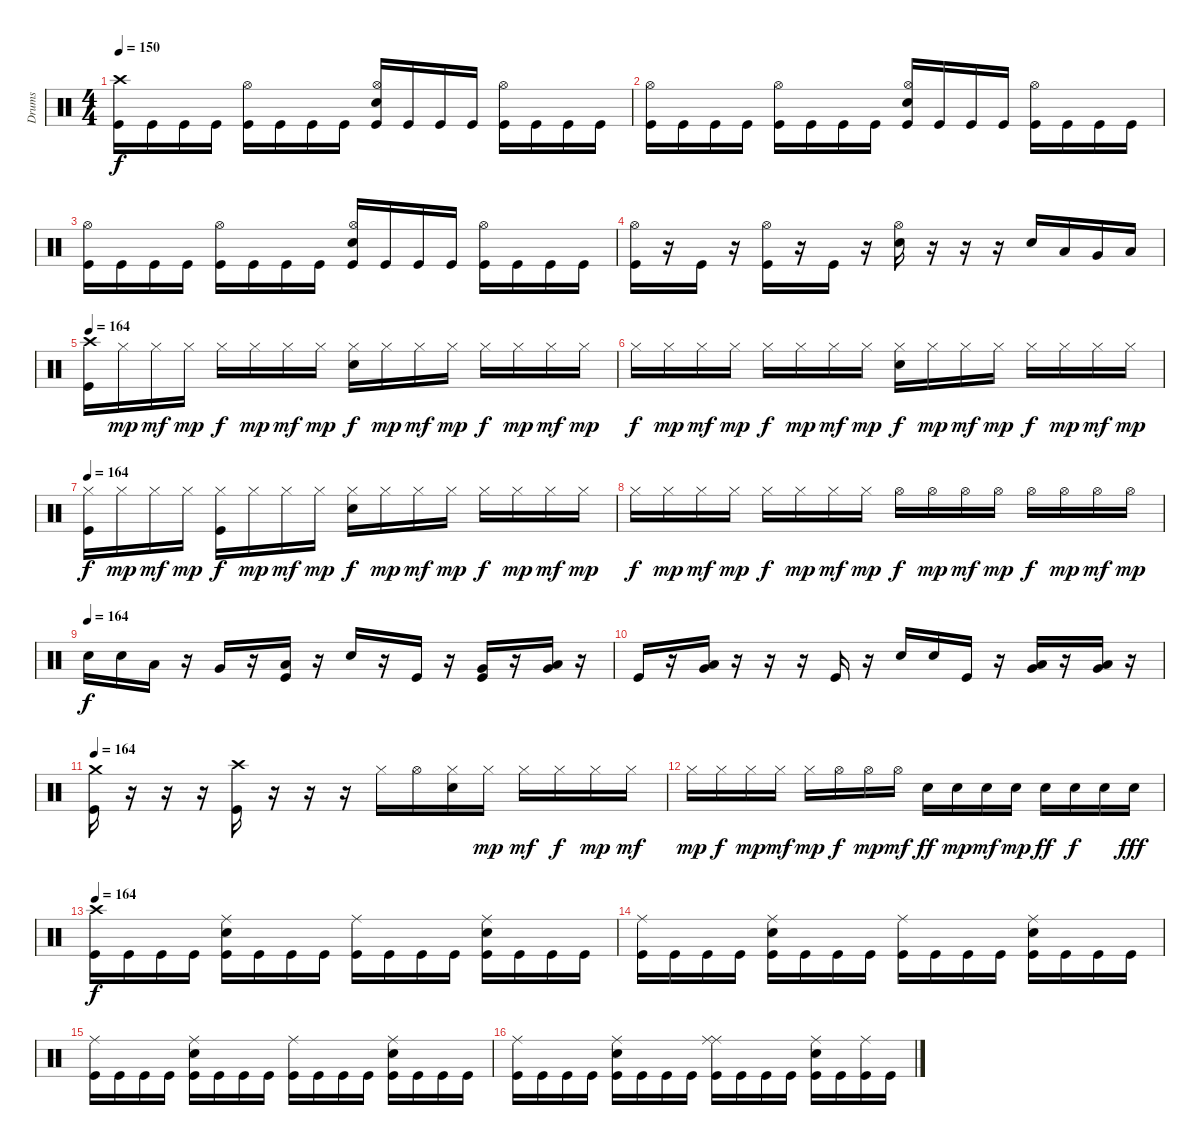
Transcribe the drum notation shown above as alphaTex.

\track ("Drums" "Drums") {instrument percussion}
\staff {score}
\articulation defaults
\ts (4 4)
\tempo 150
\clef neutral
\ks c
("Kick (hit)" "Crash high (hit)").16{dy f} "Kick (hit)".16 "Kick (hit)".16 "Kick (hit)".16 ("Kick (hit)" "Hi-Hat (open)").16 "Kick (hit)".16 "Kick (hit)".16 "Kick (hit)".16 ("Electric Snare (hit)" "Kick (hit)" "Hi-Hat (open)").16 "Kick (hit)".16 "Kick (hit)".16 "Kick (hit)".16 ("Kick (hit)" "Hi-Hat (open)").16 "Kick (hit)".16 "Kick (hit)".16 "Kick (hit)".16 |
("Kick (hit)" "Hi-Hat (open)").16 "Kick (hit)".16 "Kick (hit)".16 "Kick (hit)".16 ("Kick (hit)" "Hi-Hat (open)").16 "Kick (hit)".16 "Kick (hit)".16 "Kick (hit)".16 ("Electric Snare (hit)" "Kick (hit)" "Hi-Hat (open)").16 "Kick (hit)".16 "Kick (hit)".16 "Kick (hit)".16 ("Kick (hit)" "Hi-Hat (open)").16 "Kick (hit)".16 "Kick (hit)".16 "Kick (hit)".16 |
("Kick (hit)" "Hi-Hat (open)").16 "Kick (hit)".16 "Kick (hit)".16 "Kick (hit)".16 ("Kick (hit)" "Hi-Hat (open)").16 "Kick (hit)".16 "Kick (hit)".16 "Kick (hit)".16 ("Electric Snare (hit)" "Kick (hit)" "Hi-Hat (open)").16 "Kick (hit)".16 "Kick (hit)".16 "Kick (hit)".16 ("Kick (hit)" "Hi-Hat (open)").16 "Kick (hit)".16 "Kick (hit)".16 "Kick (hit)".16 |
("Kick (hit)" "Hi-Hat (open)").16 r.16 "Kick (hit)".16 r.16 ("Kick (hit)" "Hi-Hat (open)").16 r.16 "Kick (hit)".16 r.16 ("Electric Snare (hit)" "Hi-Hat (open)").16 r.16 r.16 r.16 "Electric Snare (hit)".16 "Low Tom (hit)".16 "Very Low Tom (hit)".16 "Low Floor Tom (hit)".16 |
\tempo 164
("Kick (hit)" "Crash high (hit)").16 "Hi-Hat (closed)".16{dy mp} "Hi-Hat (closed)".16{dy mf} "Hi-Hat (closed)".16{dy mp} "Hi-Hat (closed)".16{dy f} "Hi-Hat (closed)".16{dy mp} "Hi-Hat (closed)".16{dy mf} "Hi-Hat (closed)".16{dy mp} ("Electric Snare (hit)" "Hi-Hat (closed)").16{dy f} "Hi-Hat (closed)".16{dy mp} "Hi-Hat (closed)".16{dy mf} "Hi-Hat (closed)".16{dy mp} "Hi-Hat (closed)".16{dy f} "Hi-Hat (closed)".16{dy mp} "Hi-Hat (closed)".16{dy mf} "Hi-Hat (closed)".16{dy mp} |
"Hi-Hat (closed)".16{dy f} "Hi-Hat (closed)".16{dy mp} "Hi-Hat (closed)".16{dy mf} "Hi-Hat (closed)".16{dy mp} "Hi-Hat (closed)".16{dy f} "Hi-Hat (closed)".16{dy mp} "Hi-Hat (closed)".16{dy mf} "Hi-Hat (closed)".16{dy mp} ("Electric Snare (hit)" "Hi-Hat (closed)").16{dy f} "Hi-Hat (closed)".16{dy mp} "Hi-Hat (closed)".16{dy mf} "Hi-Hat (closed)".16{dy mp} "Hi-Hat (closed)".16{dy f} "Hi-Hat (closed)".16{dy mp} "Hi-Hat (closed)".16{dy mf} "Hi-Hat (closed)".16{dy mp} |
\tempo 164
("Kick (hit)" "Hi-Hat (closed)").16{dy f} "Hi-Hat (closed)".16{dy mp} "Hi-Hat (closed)".16{dy mf} "Hi-Hat (closed)".16{dy mp} ("Kick (hit)" "Hi-Hat (closed)").16{dy f} "Hi-Hat (closed)".16{dy mp} "Hi-Hat (closed)".16{dy mf} "Hi-Hat (closed)".16{dy mp} ("Electric Snare (hit)" "Hi-Hat (closed)").16{dy f} "Hi-Hat (closed)".16{dy mp} "Hi-Hat (closed)".16{dy mf} "Hi-Hat (closed)".16{dy mp} "Hi-Hat (closed)".16{dy f} "Hi-Hat (closed)".16{dy mp} "Hi-Hat (closed)".16{dy mf} "Hi-Hat (closed)".16{dy mp} |
"Hi-Hat (closed)".16{dy f} "Hi-Hat (closed)".16{dy mp} "Hi-Hat (closed)".16{dy mf} "Hi-Hat (closed)".16{dy mp} "Hi-Hat (closed)".16{dy f} "Hi-Hat (closed)".16{dy mp} "Hi-Hat (closed)".16{dy mf} "Hi-Hat (closed)".16{dy mp} "Hi-Hat (open)".16{dy f} "Hi-Hat (open)".16{dy mp} "Hi-Hat (open)".16{dy mf} "Hi-Hat (open)".16{dy mp} "Hi-Hat (open)".16{dy f} "Hi-Hat (open)".16{dy mp} "Hi-Hat (open)".16{dy mf} "Hi-Hat (open)".16{dy mp} |
\tempo 156
\tempo (164)
"Electric Snare (hit)".16{dy f} "Electric Snare (hit)".16 "Low Tom (hit)".16 r.16 "Very Low Tom (hit)".16 r.16 ("Kick (hit)" "Low Floor Tom (hit)").16 r.16 "Electric Snare (hit)".16 r.16 "Kick (hit)".16 r.16 ("Kick (hit)" "Very Low Tom (hit)").16 r.16 ("Very Low Tom (hit)" "Low Tom (hit)").16 r.16 |
"Kick (hit)".16 r.16 ("Very Low Tom (hit)" "Low Floor Tom (hit)").16 r.16 r.16 r.16 "Kick (hit)".16 r.16 "Electric Snare (hit)".16 "Electric Snare (hit)".16 "Kick (hit)".16 r.16 ("Low Tom (hit)" "Very Low Tom (hit)").16 r.16 ("Very Low Tom (hit)" "Low Floor Tom (hit)").16 r.16 |
\tempo 164
("Crash medium (hit)" "Kick (hit)").16 r.16 r.16 r.16 ("Crash high (hit)" "Kick (hit)").16 r.16 r.16 r.16 "Hi-Hat (closed)".16 "Hi-Hat (open)".16 ("Hi-Hat (closed)" "Electric Snare (hit)").16 "Hi-Hat (closed)".16{dy mp} "Hi-Hat (closed)".16{dy mf} "Hi-Hat (closed)".16{dy f} "Hi-Hat (closed)".16{dy mp} "Hi-Hat (closed)".16{dy mf} |
"Hi-Hat (closed)".16{dy mp} "Hi-Hat (closed)".16{dy f} "Hi-Hat (closed)".16{dy mp} "Hi-Hat (closed)".16{dy mf} "Hi-Hat (closed)".16{dy mp} "Hi-Hat (open)".16{dy f} "Hi-Hat (open)".16{dy mp} "Hi-Hat (open)".16{dy mf} "Electric Snare (hit)".16{dy ff} "Electric Snare (hit)".16{dy mp} "Electric Snare (hit)".16{dy mf} "Electric Snare (hit)".16{dy mp} "Electric Snare (hit)".16{dy ff} "Electric Snare (hit)".16{dy f} "Electric Snare (hit)".16 "Electric Snare (hit)".16{dy fff} |
\tempo 164
("Kick (hit)" "Crash high (hit)").16{dy f} "Kick (hit)".16 "Kick (hit)".16 "Kick (hit)".16 ("Electric Snare (hit)" "Kick (hit)" "Ride (middle)").16 "Kick (hit)".16 "Kick (hit)".16 "Kick (hit)".16 ("Kick (hit)" "Ride (middle)").16 "Kick (hit)".16 "Kick (hit)".16 "Kick (hit)".16 ("Electric Snare (hit)" "Kick (hit)" "Ride (middle)").16 "Kick (hit)".16 "Kick (hit)".16 "Kick (hit)".16 |
("Kick (hit)" "Ride (middle)").16 "Kick (hit)".16 "Kick (hit)".16 "Kick (hit)".16 ("Ride (middle)" "Kick (hit)" "Electric Snare (hit)").16 "Kick (hit)".16 "Kick (hit)".16 "Kick (hit)".16 ("Kick (hit)" "Ride (middle)").16 "Kick (hit)".16 "Kick (hit)".16 "Kick (hit)".16 ("Ride (middle)" "Kick (hit)" "Electric Snare (hit)").16 "Kick (hit)".16 "Kick (hit)".16 "Kick (hit)".16 |
("Kick (hit)" "Ride (middle)").16 "Kick (hit)".16 "Kick (hit)".16 "Kick (hit)".16 ("Ride (middle)" "Kick (hit)" "Electric Snare (hit)").16 "Kick (hit)".16 "Kick (hit)".16 "Kick (hit)".16 ("Kick (hit)" "Ride (middle)").16 "Kick (hit)".16 "Kick (hit)".16 "Kick (hit)".16 ("Ride (middle)" "Kick (hit)" "Electric Snare (hit)").16 "Kick (hit)".16 "Kick (hit)".16 "Kick (hit)".16 |
("Kick (hit)" "Ride (middle)").16 "Kick (hit)".16 "Kick (hit)".16 "Kick (hit)".16 ("Ride (middle)" "Kick (hit)" "Electric Snare (hit)").16 "Kick (hit)".16 "Kick (hit)".16 "Kick (hit)".16 ("Ride (middle)" "Kick (hit)" "Ride (middle)").16 "Kick (hit)".16 "Kick (hit)".16 "Kick (hit)".16 ("Ride (middle)" "Kick (hit)" "Electric Snare (hit)").16 "Kick (hit)".16 ("Ride (middle)" "Kick (hit)").16 "Kick (hit)".16
